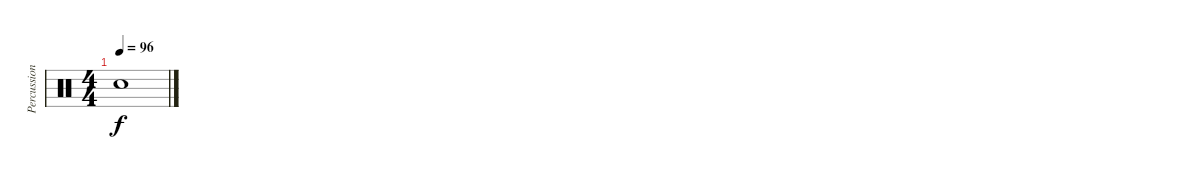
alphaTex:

\track ("Percussion" "Percussion") {instrument percussion}
\staff {score}
\articulation defaults
\ts (4 4)
\tempo 96
\clef neutral
\ks c "Snare (hit)"{t}.1{dy f}
